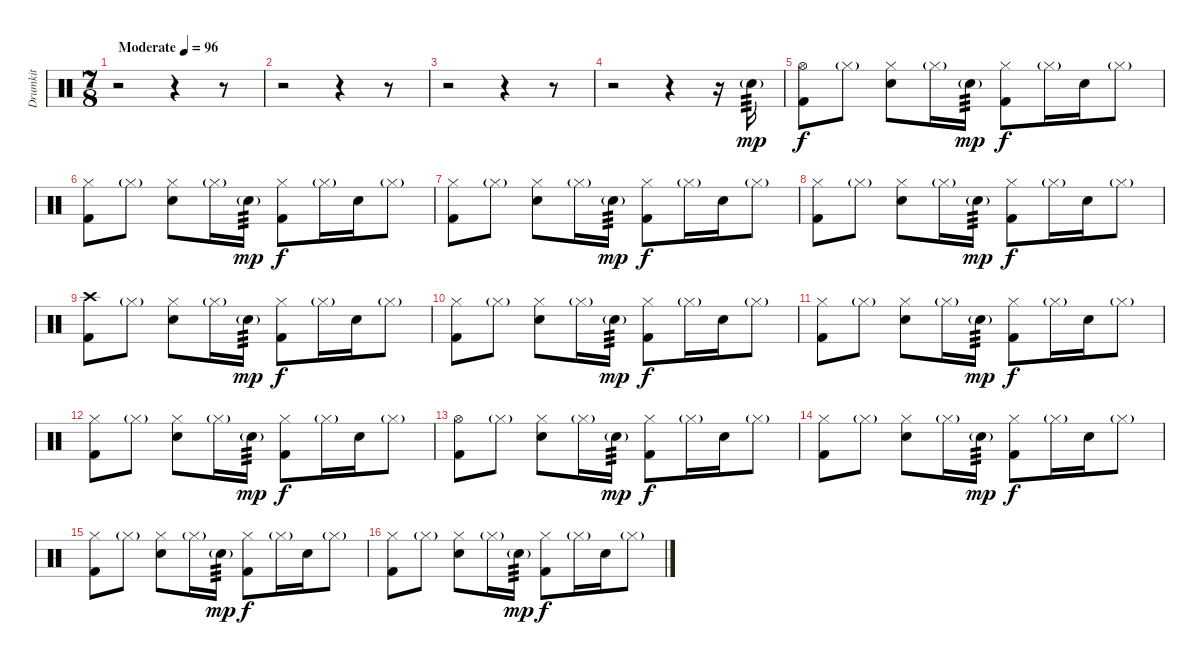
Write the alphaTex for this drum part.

\track ("Drumkit" "Drumkit") {instrument percussion}
\staff {score}
\articulation defaults
\ts (7 8)
\tempo (96 "Moderate")
\clef neutral
\ks c
r.2{dy mp} r.4 r.8 |
r.2 r.4 r.8 |
r.2 r.4 r.8 |
r.2 r.4 r.16 "Snare (hit) 2"{g}.16{tp 3} |
("Hi-Hat (open)" "Kick (hit) 2").8{dy f beam merge} "Hi-Hat (closed)"{g}.8{beam split} ("Hi-Hat (closed)" "Snare (hit) 2").8{beam merge} "Hi-Hat (closed)"{g}.16 "Snare (hit) 2"{g}.16{tp 3 dy mp} ("Hi-Hat (closed)" "Kick (hit) 2").8{dy f beam merge} "Hi-Hat (closed)"{g}.16{beam merge} "Snare (hit) 2".16{beam merge} "Hi-Hat (closed)"{g}.8 |
("Hi-Hat (closed)" "Kick (hit) 2").8{beam merge} "Hi-Hat (closed)"{g}.8{beam split} ("Hi-Hat (closed)" "Snare (hit) 2").8{beam merge} "Hi-Hat (closed)"{g}.16 "Snare (hit) 2"{g}.16{tp 3 dy mp} ("Hi-Hat (closed)" "Kick (hit) 2").8{dy f beam merge} "Hi-Hat (closed)"{g}.16{beam merge} "Snare (hit) 2".16{beam merge} "Hi-Hat (closed)"{g}.8 |
("Hi-Hat (closed)" "Kick (hit) 2").8{beam merge} "Hi-Hat (closed)"{g}.8{beam split} ("Hi-Hat (closed)" "Snare (hit) 2").8{beam merge} "Hi-Hat (closed)"{g}.16 "Snare (hit) 2"{g}.16{tp 3 dy mp} ("Hi-Hat (closed)" "Kick (hit) 2").8{dy f beam merge} "Hi-Hat (closed)"{g}.16{beam merge} "Snare (hit) 2".16{beam merge} "Hi-Hat (closed)"{g}.8 |
("Hi-Hat (closed)" "Kick (hit) 2").8{beam merge} "Hi-Hat (closed)"{g}.8{beam split} ("Hi-Hat (closed)" "Snare (hit) 2").8{beam merge} "Hi-Hat (closed)"{g}.16 "Snare (hit) 2"{g}.16{tp 3 dy mp} ("Hi-Hat (closed)" "Kick (hit) 2").8{dy f beam merge} "Hi-Hat (closed)"{g}.16{beam merge} "Snare (hit) 2".16{beam merge} "Hi-Hat (closed)"{g}.8 |
("Crash high (hit)" "Kick (hit) 2").8{beam merge} "Hi-Hat (closed)"{g}.8{beam split} ("Hi-Hat (closed)" "Snare (hit) 2").8{beam merge} "Hi-Hat (closed)"{g}.16 "Snare (hit) 2"{g}.16{tp 3 dy mp} ("Hi-Hat (closed)" "Kick (hit) 2").8{dy f beam merge} "Hi-Hat (closed)"{g}.16{beam merge} "Snare (hit) 2".16{beam merge} "Hi-Hat (closed)"{g}.8 |
("Hi-Hat (closed)" "Kick (hit) 2").8{beam merge} "Hi-Hat (closed)"{g}.8{beam split} ("Hi-Hat (closed)" "Snare (hit) 2").8{beam merge} "Hi-Hat (closed)"{g}.16 "Snare (hit) 2"{g}.16{tp 3 dy mp} ("Hi-Hat (closed)" "Kick (hit) 2").8{dy f beam merge} "Hi-Hat (closed)"{g}.16{beam merge} "Snare (hit) 2".16{beam merge} "Hi-Hat (closed)"{g}.8 |
("Hi-Hat (closed)" "Kick (hit) 2").8{beam merge} "Hi-Hat (closed)"{g}.8{beam split} ("Hi-Hat (closed)" "Snare (hit) 2").8{beam merge} "Hi-Hat (closed)"{g}.16 "Snare (hit) 2"{g}.16{tp 3 dy mp} ("Hi-Hat (closed)" "Kick (hit) 2").8{dy f beam merge} "Hi-Hat (closed)"{g}.16{beam merge} "Snare (hit) 2".16{beam merge} "Hi-Hat (closed)"{g}.8 |
("Hi-Hat (closed)" "Kick (hit) 2").8{beam merge} "Hi-Hat (closed)"{g}.8{beam split} ("Hi-Hat (closed)" "Snare (hit) 2").8{beam merge} "Hi-Hat (closed)"{g}.16 "Snare (hit) 2"{g}.16{tp 3 dy mp} ("Hi-Hat (closed)" "Kick (hit) 2").8{dy f beam merge} "Hi-Hat (closed)"{g}.16{beam merge} "Snare (hit) 2".16{beam merge} "Hi-Hat (closed)"{g}.8 |
("Hi-Hat (open)" "Kick (hit) 2").8{beam merge} "Hi-Hat (closed)"{g}.8{beam split} ("Hi-Hat (closed)" "Snare (hit) 2").8{beam merge} "Hi-Hat (closed)"{g}.16 "Snare (hit) 2"{g}.16{tp 3 dy mp} ("Hi-Hat (closed)" "Kick (hit) 2").8{dy f beam merge} "Hi-Hat (closed)"{g}.16{beam merge} "Snare (hit) 2".16{beam merge} "Hi-Hat (closed)"{g}.8 |
("Hi-Hat (closed)" "Kick (hit) 2").8{beam merge} "Hi-Hat (closed)"{g}.8{beam split} ("Hi-Hat (closed)" "Snare (hit) 2").8{beam merge} "Hi-Hat (closed)"{g}.16 "Snare (hit) 2"{g}.16{tp 3 dy mp} ("Hi-Hat (closed)" "Kick (hit) 2").8{dy f beam merge} "Hi-Hat (closed)"{g}.16{beam merge} "Snare (hit) 2".16{beam merge} "Hi-Hat (closed)"{g}.8 |
("Hi-Hat (closed)" "Kick (hit) 2").8{beam merge} "Hi-Hat (closed)"{g}.8{beam split} ("Hi-Hat (closed)" "Snare (hit) 2").8{beam merge} "Hi-Hat (closed)"{g}.16 "Snare (hit) 2"{g}.16{tp 3 dy mp} ("Hi-Hat (closed)" "Kick (hit) 2").8{dy f beam merge} "Hi-Hat (closed)"{g}.16{beam merge} "Snare (hit) 2".16{beam merge} "Hi-Hat (closed)"{g}.8 |
("Hi-Hat (closed)" "Kick (hit) 2").8{beam merge} "Hi-Hat (closed)"{g}.8{beam split} ("Hi-Hat (closed)" "Snare (hit) 2").8{beam merge} "Hi-Hat (closed)"{g}.16 "Snare (hit) 2"{g}.16{tp 3 dy mp} ("Hi-Hat (closed)" "Kick (hit) 2").8{dy f beam merge} "Hi-Hat (closed)"{g}.16{beam merge} "Snare (hit) 2".16{beam merge} "Hi-Hat (closed)"{g}.8
